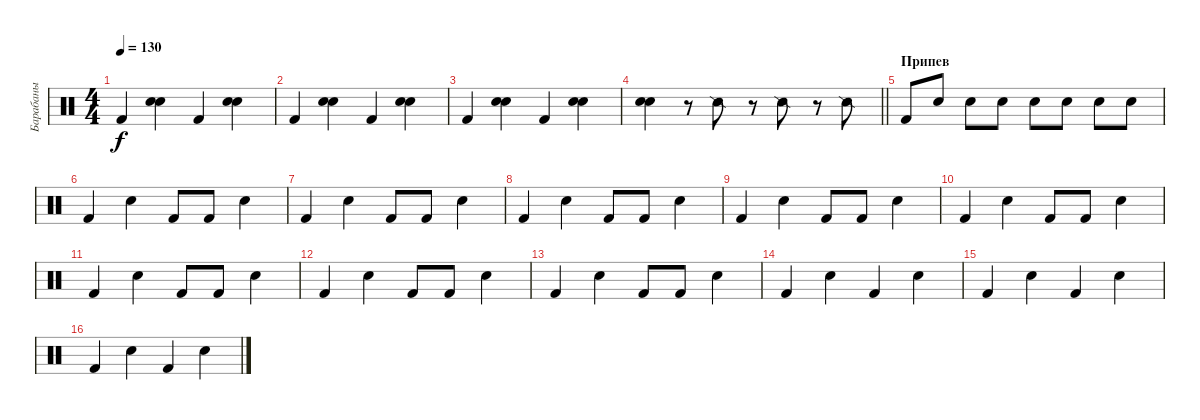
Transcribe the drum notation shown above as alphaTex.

\track ("Барабаны" "Барабаны") {instrument percussion}
\staff {score}
\articulation defaults
\ts (4 4)
\tempo 130
\clef neutral
\ks c "Kick (hit) 2".4{dy f}
("Snare (hit) 2" "Electric Snare (hit)").4 "Kick (hit) 2".4 ("Snare (hit) 2" "Electric Snare (hit)").4 |
"Kick (hit) 2".4 ("Snare (hit) 2" "Electric Snare (hit)").4 "Kick (hit) 2".4 ("Snare (hit) 2" "Electric Snare (hit)").4 |
"Kick (hit) 2".4 ("Snare (hit) 2" "Electric Snare (hit)").4 "Kick (hit) 2".4 ("Snare (hit) 2" "Electric Snare (hit)").4 |
\barLineRight lightlight
("Snare (hit) 2" "Electric Snare (hit)").4 r.8 "Snare (side stick) 2".8 r.8 "Snare (side stick) 2".8 r.8 "Snare (side stick) 2".8 |
\section ("" "Припев")
"Kick (hit) 2".8 "Snare (hit) 2".8 "Snare (hit) 2".8 "Snare (hit) 2".8 "Snare (hit) 2".8 "Snare (hit) 2".8 "Snare (hit) 2".8 "Snare (hit) 2".8 |
"Kick (hit) 2".4 "Snare (hit) 2".4 "Kick (hit) 2".8 "Kick (hit) 2".8 "Snare (hit) 2".4 |
"Kick (hit) 2".4 "Snare (hit) 2".4 "Kick (hit) 2".8 "Kick (hit) 2".8 "Snare (hit) 2".4 |
"Kick (hit) 2".4 "Snare (hit) 2".4 "Kick (hit) 2".8 "Kick (hit) 2".8 "Snare (hit) 2".4 |
"Kick (hit) 2".4 "Snare (hit) 2".4 "Kick (hit) 2".8 "Kick (hit) 2".8 "Snare (hit) 2".4 |
"Kick (hit) 2".4 "Snare (hit) 2".4 "Kick (hit) 2".8 "Kick (hit) 2".8 "Snare (hit) 2".4 |
"Kick (hit) 2".4 "Snare (hit) 2".4 "Kick (hit) 2".8 "Kick (hit) 2".8 "Snare (hit) 2".4 |
"Kick (hit) 2".4 "Snare (hit) 2".4 "Kick (hit) 2".8 "Kick (hit) 2".8 "Snare (hit) 2".4 |
"Kick (hit) 2".4 "Snare (hit) 2".4 "Kick (hit) 2".8 "Kick (hit) 2".8 "Snare (hit) 2".4 |
"Kick (hit) 2".4 "Snare (hit) 2".4 "Kick (hit) 2".4 "Snare (hit) 2".4 |
"Kick (hit) 2".4 "Snare (hit) 2".4 "Kick (hit) 2".4 "Snare (hit) 2".4 |
"Kick (hit) 2".4 "Snare (hit) 2".4 "Kick (hit) 2".4 "Snare (hit) 2".4
